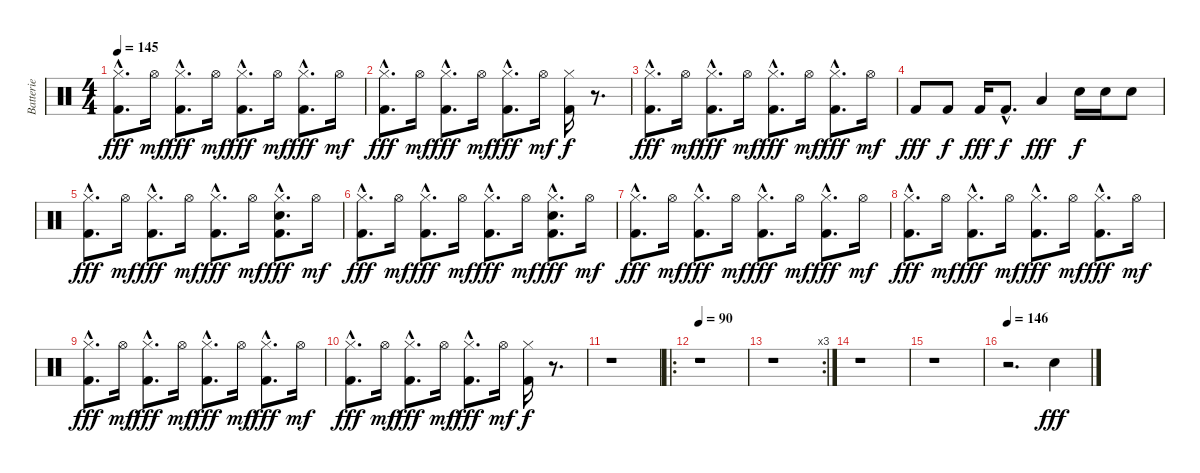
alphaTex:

\track ("Batterie" "Batterie") {instrument percussion}
\staff {score}
\articulation defaults
\ts (4 4)
\tempo 145
\clef neutral
\ks c
("Hi-Hat (closed)"{hac} "Kick (hit) 2"{hac}).8{d dy fff} "Hi-Hat (open)".16{dy mf} ("Hi-Hat (closed)"{hac} "Kick (hit) 2"{hac}).8{d dy fff} "Hi-Hat (open)".16{dy mf} ("Hi-Hat (closed)"{hac} "Kick (hit) 2"{hac}).8{d dy fff} "Hi-Hat (open)".16{dy mf} ("Hi-Hat (closed)"{hac} "Kick (hit) 2"{hac}).8{d dy fff} "Hi-Hat (open)".16{dy mf} |
("Hi-Hat (closed)"{hac} "Kick (hit) 2"{hac}).8{d dy fff} "Hi-Hat (open)".16{dy mf} ("Hi-Hat (closed)"{hac} "Kick (hit) 2"{hac}).8{d dy fff} "Hi-Hat (open)".16{dy mf} ("Hi-Hat (closed)"{hac} "Kick (hit) 2"{hac}).8{d dy fff} "Hi-Hat (open)".16{dy mf} ("Hi-Hat (closed)" "Kick (hit) 2").16{dy f} r.8{d} |
("Hi-Hat (closed)"{hac} "Kick (hit) 2"{hac}).8{d dy fff} "Hi-Hat (open)".16{dy mf} ("Hi-Hat (closed)"{hac} "Kick (hit) 2"{hac}).8{d dy fff} "Hi-Hat (open)".16{dy mf} ("Hi-Hat (closed)"{hac} "Kick (hit) 2"{hac}).8{d dy fff} "Hi-Hat (open)".16{dy mf} ("Hi-Hat (closed)"{hac} "Kick (hit) 2"{hac}).8{d dy fff} "Hi-Hat (open)".16{dy mf} |
"Kick (hit) 2".8{dy fff} "Kick (hit) 2".8{dy f} "Kick (hit) 2".16{dy fff} "Kick (hit) 2"{hac}.8{d dy f} "Low Tom (hit)".4{dy fff} "Snare (hit) 2".16{dy f} "Snare (hit) 2".16 "Snare (hit) 2".8 |
("Hi-Hat (closed)"{hac} "Kick (hit) 2"{hac}).8{d dy fff} "Hi-Hat (open)".16{dy mf} ("Hi-Hat (closed)"{hac} "Kick (hit) 2"{hac}).8{d dy fff} "Hi-Hat (open)".16{dy mf} ("Hi-Hat (closed)"{hac} "Kick (hit) 2"{hac}).8{d dy fff} "Hi-Hat (open)".16{dy mf} ("Hi-Hat (closed)"{hac} "Kick (hit) 2"{hac} "Electric Snare (hit)"{hac}).8{d dy fff} "Hi-Hat (open)".16{dy mf} |
("Hi-Hat (closed)"{hac} "Kick (hit) 2"{hac}).8{d dy fff} "Hi-Hat (open)".16{dy mf} ("Hi-Hat (closed)"{hac} "Kick (hit) 2"{hac}).8{d dy fff} "Hi-Hat (open)".16{dy mf} ("Hi-Hat (closed)"{hac} "Kick (hit) 2"{hac}).8{d dy fff} "Hi-Hat (open)".16{dy mf} ("Hi-Hat (closed)"{hac} "Kick (hit) 2"{hac} "Electric Snare (hit)"{hac}).8{d dy fff} "Hi-Hat (open)".16{dy mf} |
("Hi-Hat (closed)"{hac} "Kick (hit) 2"{hac}).8{d dy fff} "Hi-Hat (open)".16{dy mf} ("Hi-Hat (closed)"{hac} "Kick (hit) 2"{hac}).8{d dy fff} "Hi-Hat (open)".16{dy mf} ("Hi-Hat (closed)"{hac} "Kick (hit) 2"{hac}).8{d dy fff} "Hi-Hat (open)".16{dy mf} ("Hi-Hat (closed)"{hac} "Kick (hit) 2"{hac}).8{d dy fff} "Hi-Hat (open)".16{dy mf} |
("Hi-Hat (closed)"{hac} "Kick (hit) 2"{hac}).8{d dy fff} "Hi-Hat (open)".16{dy mf} ("Hi-Hat (closed)"{hac} "Kick (hit) 2"{hac}).8{d dy fff} "Hi-Hat (open)".16{dy mf} ("Hi-Hat (closed)"{hac} "Kick (hit) 2"{hac}).8{d dy fff} "Hi-Hat (open)".16{dy mf} ("Hi-Hat (closed)"{hac} "Kick (hit) 2"{hac}).8{d dy fff} "Hi-Hat (open)".16{dy mf} |
("Hi-Hat (closed)"{hac} "Kick (hit) 2"{hac}).8{d dy fff} "Hi-Hat (open)".16{dy mf} ("Hi-Hat (closed)"{hac} "Kick (hit) 2"{hac}).8{d dy fff} "Hi-Hat (open)".16{dy mf} ("Hi-Hat (closed)"{hac} "Kick (hit) 2"{hac}).8{d dy fff} "Hi-Hat (open)".16{dy mf} ("Hi-Hat (closed)"{hac} "Kick (hit) 2"{hac}).8{d dy fff} "Hi-Hat (open)".16{dy mf} |
("Hi-Hat (closed)"{hac} "Kick (hit) 2"{hac}).8{d dy fff} "Hi-Hat (open)".16{dy mf} ("Hi-Hat (closed)"{hac} "Kick (hit) 2"{hac}).8{d dy fff} "Hi-Hat (open)".16{dy mf} ("Hi-Hat (closed)"{hac} "Kick (hit) 2"{hac}).8{d dy fff} "Hi-Hat (open)".16{dy mf} ("Hi-Hat (closed)" "Kick (hit) 2").16{dy f} r.8{d} |
r.1 |
\ro
\tempo 90
r.1 |
\rc 3
r.1 |
r.1 |
r.1 |
\tempo 146
r.2{d} "Electric Snare (hit)".4{dy fff}
